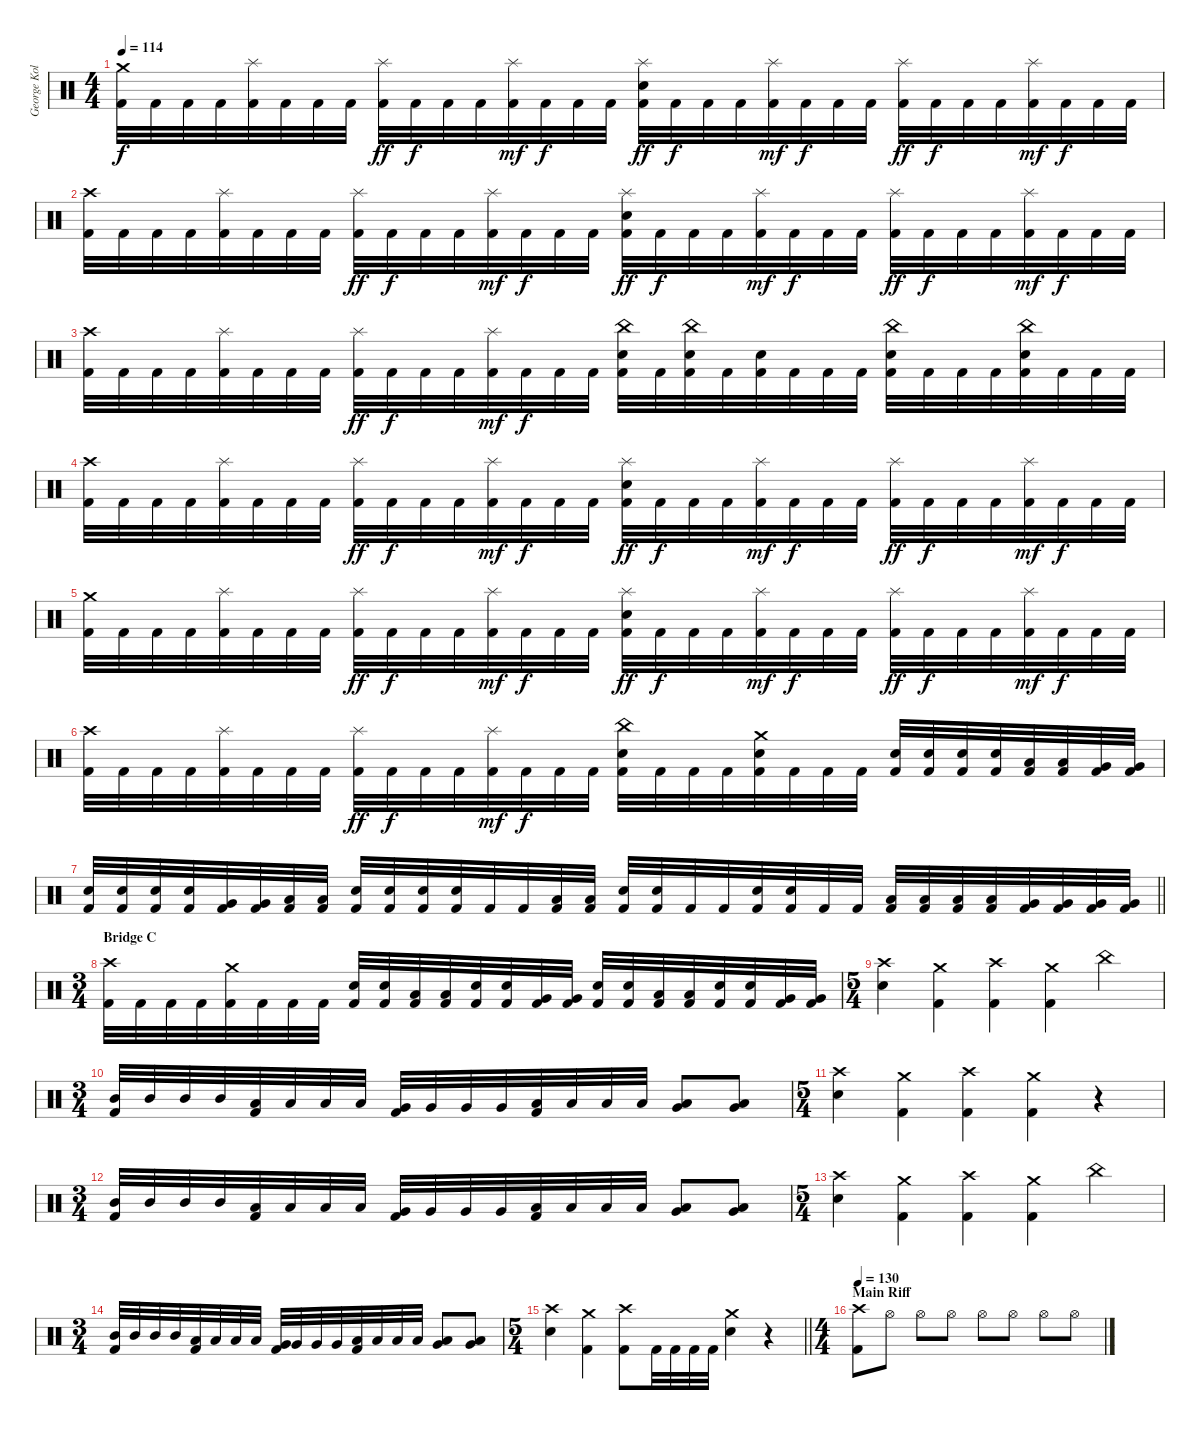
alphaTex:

\track ("George Kollias" "George Kol") {instrument percussion}
\staff {score}
\articulation defaults
\ts (4 4)
\tempo 114
\clef neutral
\ks c
("Crash medium (hit)" "Kick (hit) 2").32{dy f} "Kick (hit) 2".32 "Kick (hit) 2".32 "Kick (hit) 2".32 ("Splash (hit)" "Kick (hit) 2").32 "Kick (hit) 2".32 "Kick (hit) 2".32 "Kick (hit) 2".32 ("Splash (hit)" "Kick (hit) 2").32{dy ff} "Kick (hit) 2".32{dy f} "Kick (hit) 2".32 "Kick (hit) 2".32 ("Splash (hit)" "Kick (hit) 2").32{dy mf} "Kick (hit) 2".32{dy f} "Kick (hit) 2".32 "Kick (hit) 2".32 ("Splash (hit)" "Electric Snare (hit)" "Kick (hit) 2").32{dy ff} "Kick (hit) 2".32{dy f} "Kick (hit) 2".32 "Kick (hit) 2".32 ("Splash (hit)" "Kick (hit) 2").32{dy mf} "Kick (hit) 2".32{dy f} "Kick (hit) 2".32 "Kick (hit) 2".32 ("Splash (hit)" "Kick (hit) 2").32{dy ff} "Kick (hit) 2".32{dy f} "Kick (hit) 2".32 "Kick (hit) 2".32 ("Splash (hit)" "Kick (hit) 2").32{dy mf} "Kick (hit) 2".32{dy f} "Kick (hit) 2".32 "Kick (hit) 2".32 |
("Crash high (hit)" "Kick (hit) 2").32 "Kick (hit) 2".32 "Kick (hit) 2".32 "Kick (hit) 2".32 ("Splash (hit)" "Kick (hit) 2").32 "Kick (hit) 2".32 "Kick (hit) 2".32 "Kick (hit) 2".32 ("Splash (hit)" "Kick (hit) 2").32{dy ff} "Kick (hit) 2".32{dy f} "Kick (hit) 2".32 "Kick (hit) 2".32 ("Splash (hit)" "Kick (hit) 2").32{dy mf} "Kick (hit) 2".32{dy f} "Kick (hit) 2".32 "Kick (hit) 2".32 ("Splash (hit)" "Electric Snare (hit)" "Kick (hit) 2").32{dy ff} "Kick (hit) 2".32{dy f} "Kick (hit) 2".32 "Kick (hit) 2".32 ("Splash (hit)" "Kick (hit) 2").32{dy mf} "Kick (hit) 2".32{dy f} "Kick (hit) 2".32 "Kick (hit) 2".32 ("Splash (hit)" "Kick (hit) 2").32{dy ff} "Kick (hit) 2".32{dy f} "Kick (hit) 2".32 "Kick (hit) 2".32 ("Splash (hit)" "Kick (hit) 2").32{dy mf} "Kick (hit) 2".32{dy f} "Kick (hit) 2".32 "Kick (hit) 2".32 |
("Crash high (hit)" "Kick (hit) 2").32 "Kick (hit) 2".32 "Kick (hit) 2".32 "Kick (hit) 2".32 ("Splash (hit)" "Kick (hit) 2").32 "Kick (hit) 2".32 "Kick (hit) 2".32 "Kick (hit) 2".32 ("Splash (hit)" "Kick (hit) 2").32{dy ff} "Kick (hit) 2".32{dy f} "Kick (hit) 2".32 "Kick (hit) 2".32 ("Splash (hit)" "Kick (hit) 2").32{dy mf} "Kick (hit) 2".32{dy f} "Kick (hit) 2".32 "Kick (hit) 2".32 ("China (hit)" "Electric Snare (hit)" "Kick (hit) 2").32 "Kick (hit) 2".32 ("China (hit)" "Electric Snare (hit)" "Kick (hit) 2").32 "Kick (hit) 2".32 ("Electric Snare (hit)" "Kick (hit) 2").32 "Kick (hit) 2".32 "Kick (hit) 2".32 "Kick (hit) 2".32 ("China (hit)" "Electric Snare (hit)" "Kick (hit) 2").32 "Kick (hit) 2".32 "Kick (hit) 2".32 "Kick (hit) 2".32 ("China (hit)" "Electric Snare (hit)" "Kick (hit) 2").32 "Kick (hit) 2".32 "Kick (hit) 2".32 "Kick (hit) 2".32 |
("Crash high (hit)" "Kick (hit) 2").32 "Kick (hit) 2".32 "Kick (hit) 2".32 "Kick (hit) 2".32 ("Splash (hit)" "Kick (hit) 2").32 "Kick (hit) 2".32 "Kick (hit) 2".32 "Kick (hit) 2".32 ("Splash (hit)" "Kick (hit) 2").32{dy ff} "Kick (hit) 2".32{dy f} "Kick (hit) 2".32 "Kick (hit) 2".32 ("Splash (hit)" "Kick (hit) 2").32{dy mf} "Kick (hit) 2".32{dy f} "Kick (hit) 2".32 "Kick (hit) 2".32 ("Splash (hit)" "Electric Snare (hit)" "Kick (hit) 2").32{dy ff} "Kick (hit) 2".32{dy f} "Kick (hit) 2".32 "Kick (hit) 2".32 ("Splash (hit)" "Kick (hit) 2").32{dy mf} "Kick (hit) 2".32{dy f} "Kick (hit) 2".32 "Kick (hit) 2".32 ("Splash (hit)" "Kick (hit) 2").32{dy ff} "Kick (hit) 2".32{dy f} "Kick (hit) 2".32 "Kick (hit) 2".32 ("Splash (hit)" "Kick (hit) 2").32{dy mf} "Kick (hit) 2".32{dy f} "Kick (hit) 2".32 "Kick (hit) 2".32 |
("Crash medium (hit)" "Kick (hit) 2").32 "Kick (hit) 2".32 "Kick (hit) 2".32 "Kick (hit) 2".32 ("Splash (hit)" "Kick (hit) 2").32 "Kick (hit) 2".32 "Kick (hit) 2".32 "Kick (hit) 2".32 ("Splash (hit)" "Kick (hit) 2").32{dy ff} "Kick (hit) 2".32{dy f} "Kick (hit) 2".32 "Kick (hit) 2".32 ("Splash (hit)" "Kick (hit) 2").32{dy mf} "Kick (hit) 2".32{dy f} "Kick (hit) 2".32 "Kick (hit) 2".32 ("Splash (hit)" "Electric Snare (hit)" "Kick (hit) 2").32{dy ff} "Kick (hit) 2".32{dy f} "Kick (hit) 2".32 "Kick (hit) 2".32 ("Splash (hit)" "Kick (hit) 2").32{dy mf} "Kick (hit) 2".32{dy f} "Kick (hit) 2".32 "Kick (hit) 2".32 ("Splash (hit)" "Kick (hit) 2").32{dy ff} "Kick (hit) 2".32{dy f} "Kick (hit) 2".32 "Kick (hit) 2".32 ("Splash (hit)" "Kick (hit) 2").32{dy mf} "Kick (hit) 2".32{dy f} "Kick (hit) 2".32 "Kick (hit) 2".32 |
("Crash high (hit)" "Kick (hit) 2").32 "Kick (hit) 2".32 "Kick (hit) 2".32 "Kick (hit) 2".32 ("Splash (hit)" "Kick (hit) 2").32 "Kick (hit) 2".32 "Kick (hit) 2".32 "Kick (hit) 2".32 ("Splash (hit)" "Kick (hit) 2").32{dy ff} "Kick (hit) 2".32{dy f} "Kick (hit) 2".32 "Kick (hit) 2".32 ("Splash (hit)" "Kick (hit) 2").32{dy mf} "Kick (hit) 2".32{dy f} "Kick (hit) 2".32 "Kick (hit) 2".32 ("China (hit)" "Electric Snare (hit)" "Kick (hit) 2").32 "Kick (hit) 2".32 "Kick (hit) 2".32 "Kick (hit) 2".32 ("Crash medium (hit)" "Electric Snare (hit)" "Kick (hit) 2").32 "Kick (hit) 2".32 "Kick (hit) 2".32 "Kick (hit) 2".32 ("Electric Snare (hit)" "Kick (hit) 2").32 ("Electric Snare (hit)" "Kick (hit) 2").32 ("Electric Snare (hit)" "Kick (hit) 2").32 ("Electric Snare (hit)" "Kick (hit) 2").32 ("Low Tom (hit)" "Kick (hit) 2").32 ("Low Tom (hit)" "Kick (hit) 2").32 ("Very Low Tom (hit)" "Kick (hit) 2").32 ("Very Low Tom (hit)" "Kick (hit) 2").32 |
\barLineRight lightlight
("Electric Snare (hit)" "Kick (hit) 2").32 ("Electric Snare (hit)" "Kick (hit) 2").32 ("Electric Snare (hit)" "Kick (hit) 2").32 ("Electric Snare (hit)" "Kick (hit) 2").32 ("Very Low Tom (hit)" "Kick (hit) 2").32 ("Very Low Tom (hit)" "Kick (hit) 2").32 ("Low Floor Tom (hit)" "Kick (hit) 2").32 ("Low Floor Tom (hit)" "Kick (hit) 2").32 ("Electric Snare (hit)" "Kick (hit) 2").32 ("Electric Snare (hit)" "Kick (hit) 2").32 ("Electric Snare (hit)" "Kick (hit) 2").32 ("Electric Snare (hit)" "Kick (hit) 2").32 "Kick (hit) 2".32 "Kick (hit) 2".32 ("Low Floor Tom (hit)" "Kick (hit) 2").32 ("Low Floor Tom (hit)" "Kick (hit) 2").32 ("Electric Snare (hit)" "Kick (hit) 2").32 ("Electric Snare (hit)" "Kick (hit) 2").32 "Kick (hit) 2".32 "Kick (hit) 2".32 ("Electric Snare (hit)" "Kick (hit) 2").32 ("Electric Snare (hit)" "Kick (hit) 2").32 "Kick (hit) 2".32 "Kick (hit) 2".32 ("Low Tom (hit)" "Kick (hit) 2").32 ("Low Tom (hit)" "Kick (hit) 2").32 ("Low Tom (hit)" "Kick (hit) 2").32 ("Low Tom (hit)" "Kick (hit) 2").32 ("Very Low Tom (hit)" "Kick (hit) 2").32 ("Very Low Tom (hit)" "Kick (hit) 2").32 ("Very Low Tom (hit)" "Kick (hit) 2").32 ("Very Low Tom (hit)" "Kick (hit) 2").32 |
\ts (3 4)
\section ("" "Bridge C")
("Crash high (hit)" "Kick (hit) 2").32 "Kick (hit) 2".32 "Kick (hit) 2".32 "Kick (hit) 2".32 ("Crash medium (hit)" "Kick (hit) 2").32 "Kick (hit) 2".32 "Kick (hit) 2".32 "Kick (hit) 2".32 ("Electric Snare (hit)" "Kick (hit) 2").32 ("Electric Snare (hit)" "Kick (hit) 2").32 ("Low Tom (hit)" "Kick (hit) 2").32 ("Low Tom (hit)" "Kick (hit) 2").32 ("Electric Snare (hit)" "Kick (hit) 2").32 ("Electric Snare (hit)" "Kick (hit) 2").32 ("Very Low Tom (hit)" "Kick (hit) 2").32 ("Very Low Tom (hit)" "Kick (hit) 2").32 ("Electric Snare (hit)" "Kick (hit) 2").32 ("Electric Snare (hit)" "Kick (hit) 2").32 ("Low Tom (hit)" "Kick (hit) 2").32 ("Low Tom (hit)" "Kick (hit) 2").32 ("Electric Snare (hit)" "Kick (hit) 2").32 ("Electric Snare (hit)" "Kick (hit) 2").32 ("Very Low Tom (hit)" "Kick (hit) 2").32 ("Very Low Tom (hit)" "Kick (hit) 2").32 |
\ts (5 4)
("Crash high (hit)" "Electric Snare (hit)").4 ("Crash medium (hit)" "Kick (hit) 2").4 ("Crash high (hit)" "Kick (hit) 2").4 ("Crash medium (hit)" "Kick (hit) 2").4 "China (hit)".4 |
\ts (3 4)
("Mid Tom (hit)" "Kick (hit) 2").32 "Mid Tom (hit)".32 "Mid Tom (hit)".32 "Mid Tom (hit)".32 ("Low Tom (hit)" "Kick (hit) 2").32 "Low Tom (hit)".32 "Low Tom (hit)".32 "Low Tom (hit)".32 ("Very Low Tom (hit)" "Kick (hit) 2").32 "Very Low Tom (hit)".32 "Very Low Tom (hit)".32 "Very Low Tom (hit)".32 ("Low Floor Tom (hit)" "Kick (hit) 2").32 "Low Floor Tom (hit)".32 "Low Floor Tom (hit)".32 "Low Floor Tom (hit)".32 ("Very Low Tom (hit)" "Low Floor Tom (hit)").8 ("Very Low Tom (hit)" "Low Floor Tom (hit)").8 |
\ts (5 4)
("Crash high (hit)" "Electric Snare (hit)").4 ("Crash medium (hit)" "Kick (hit) 2").4 ("Crash high (hit)" "Kick (hit) 2").4 ("Crash medium (hit)" "Kick (hit) 2").4 r.4 |
\ts (3 4)
("Mid Tom (hit)" "Kick (hit) 2").32 "Mid Tom (hit)".32 "Mid Tom (hit)".32 "Mid Tom (hit)".32 ("Low Tom (hit)" "Kick (hit) 2").32 "Low Tom (hit)".32 "Low Tom (hit)".32 "Low Tom (hit)".32 ("Very Low Tom (hit)" "Kick (hit) 2").32 "Very Low Tom (hit)".32 "Very Low Tom (hit)".32 "Very Low Tom (hit)".32 ("Low Floor Tom (hit)" "Kick (hit) 2").32 "Low Floor Tom (hit)".32 "Low Floor Tom (hit)".32 "Low Floor Tom (hit)".32 ("Very Low Tom (hit)" "Low Floor Tom (hit)").8 ("Very Low Tom (hit)" "Low Floor Tom (hit)").8 |
\ts (5 4)
("Crash high (hit)" "Electric Snare (hit)").4 ("Crash medium (hit)" "Kick (hit) 2").4 ("Crash high (hit)" "Kick (hit) 2").4 ("Crash medium (hit)" "Kick (hit) 2").4 "China (hit)".4 |
\ts (3 4)
("Mid Tom (hit)" "Kick (hit) 2").32 "Mid Tom (hit)".32 "Mid Tom (hit)".32 "Mid Tom (hit)".32 ("Low Tom (hit)" "Kick (hit) 2").32 "Low Tom (hit)".32 "Low Tom (hit)".32 "Low Tom (hit)".32 ("Very Low Tom (hit)" "Kick (hit) 2").32 "Very Low Tom (hit)".32 "Very Low Tom (hit)".32 "Very Low Tom (hit)".32 ("Low Floor Tom (hit)" "Kick (hit) 2").32 "Low Floor Tom (hit)".32 "Low Floor Tom (hit)".32 "Low Floor Tom (hit)".32 ("Very Low Tom (hit)" "Low Floor Tom (hit)").8 ("Very Low Tom (hit)" "Low Floor Tom (hit)").8 |
\ts (5 4)
\barLineRight lightlight
("Crash high (hit)" "Electric Snare (hit)").4 ("Crash medium (hit)" "Kick (hit) 2").4 ("Crash high (hit)" "Kick (hit) 2").8 "Kick (hit) 2".32 "Kick (hit) 2".32 "Kick (hit) 2".32 "Kick (hit) 2".32 ("Crash medium (hit)" "Electric Snare (hit)").4 r.4 |
\ts (4 4)
\section ("" "Main Riff")
\tempo 130
("Crash high (hit)" "Kick (hit) 2").8 "Hi-Hat (open)".8 "Hi-Hat (open)".8 "Hi-Hat (open)".8 "Hi-Hat (open)".8 "Hi-Hat (open)".8 "Hi-Hat (open)".8 "Hi-Hat (open)".8
